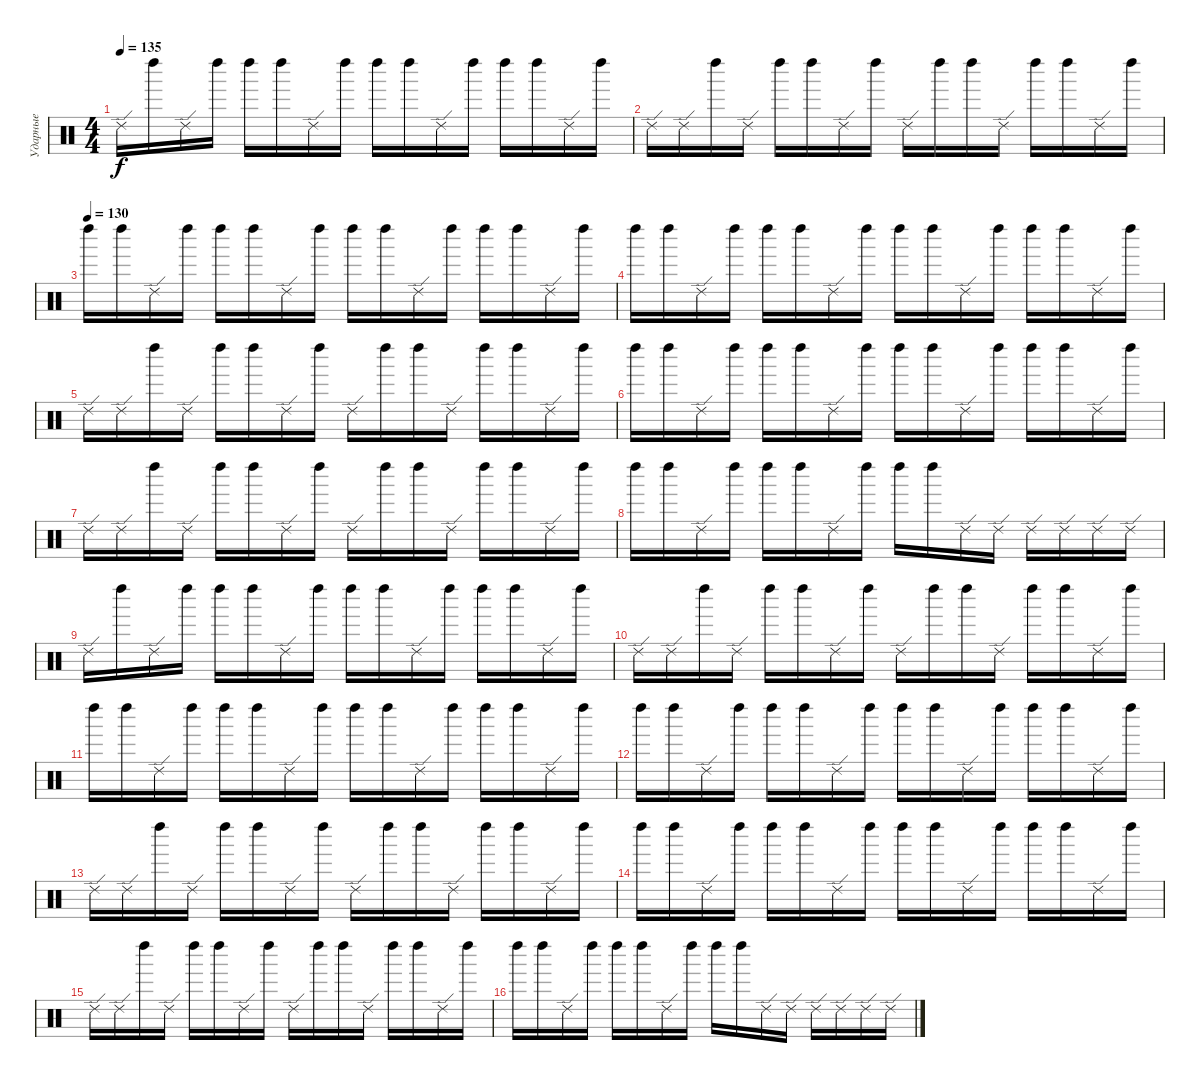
\track ("Ударные" "Ударные") {instrument percussion}
\staff {score}
\articulation defaults
\ts (4 4)
\tempo 135
\clef neutral
\ks c "Ride (edge) 2".16{dy f} "Left Maraca (hit)".16 "Ride (edge) 2".16 "Left Maraca (hit)".16 "Left Maraca (hit)".16 "Left Maraca (hit)".16 "Ride (edge) 2".16 "Left Maraca (hit)".16 "Left Maraca (hit)".16 "Left Maraca (hit)".16 "Ride (edge) 2".16 "Left Maraca (hit)".16 "Left Maraca (hit)".16 "Left Maraca (hit)".16 "Ride (edge) 2".16 "Left Maraca (hit)".16
|
"Ride (edge) 2".16 "Ride (edge) 2".16 "Left Maraca (hit)".16 "Ride (edge) 2".16 "Left Maraca (hit)".16 "Left Maraca (hit)".16 "Ride (edge) 2".16 "Left Maraca (hit)".16 "Ride (edge) 2".16 "Left Maraca (hit)".16 "Left Maraca (hit)".16 "Ride (edge) 2".16 "Left Maraca (hit)".16 "Left Maraca (hit)".16 "Ride (edge) 2".16 "Left Maraca (hit)".16 |
\tempo (130)
"Left Maraca (hit)".16 "Left Maraca (hit)".16 "Ride (edge) 2".16 "Left Maraca (hit)".16 "Left Maraca (hit)".16 "Left Maraca (hit)".16 "Ride (edge) 2".16 "Left Maraca (hit)".16 "Left Maraca (hit)".16 "Left Maraca (hit)".16 "Ride (edge) 2".16 "Left Maraca (hit)".16 "Left Maraca (hit)".16 "Left Maraca (hit)".16 "Ride (edge) 2".16 "Left Maraca (hit)".16 |
"Left Maraca (hit)".16 "Left Maraca (hit)".16 "Ride (edge) 2".16 "Left Maraca (hit)".16 "Left Maraca (hit)".16 "Left Maraca (hit)".16 "Ride (edge) 2".16 "Left Maraca (hit)".16 "Left Maraca (hit)".16 "Left Maraca (hit)".16 "Ride (edge) 2".16 "Left Maraca (hit)".16 "Left Maraca (hit)".16 "Left Maraca (hit)".16 "Ride (edge) 2".16 "Left Maraca (hit)".16 |
"Ride (edge) 2".16 "Ride (edge) 2".16 "Left Maraca (hit)".16 "Ride (edge) 2".16 "Left Maraca (hit)".16 "Left Maraca (hit)".16 "Ride (edge) 2".16 "Left Maraca (hit)".16 "Ride (edge) 2".16 "Left Maraca (hit)".16 "Left Maraca (hit)".16 "Ride (edge) 2".16 "Left Maraca (hit)".16 "Left Maraca (hit)".16 "Ride (edge) 2".16 "Left Maraca (hit)".16 |
"Left Maraca (hit)".16 "Left Maraca (hit)".16 "Ride (edge) 2".16 "Left Maraca (hit)".16 "Left Maraca (hit)".16 "Left Maraca (hit)".16 "Ride (edge) 2".16 "Left Maraca (hit)".16 "Left Maraca (hit)".16 "Left Maraca (hit)".16 "Ride (edge) 2".16 "Left Maraca (hit)".16 "Left Maraca (hit)".16 "Left Maraca (hit)".16 "Ride (edge) 2".16 "Left Maraca (hit)".16 |
"Ride (edge) 2".16 "Ride (edge) 2".16 "Left Maraca (hit)".16 "Ride (edge) 2".16 "Left Maraca (hit)".16 "Left Maraca (hit)".16 "Ride (edge) 2".16 "Left Maraca (hit)".16 "Ride (edge) 2".16 "Left Maraca (hit)".16 "Left Maraca (hit)".16 "Ride (edge) 2".16 "Left Maraca (hit)".16 "Left Maraca (hit)".16 "Ride (edge) 2".16 "Left Maraca (hit)".16 |
"Left Maraca (hit)".16 "Left Maraca (hit)".16 "Ride (edge) 2".16 "Left Maraca (hit)".16 "Left Maraca (hit)".16 "Left Maraca (hit)".16 "Ride (edge) 2".16 "Left Maraca (hit)".16 "Left Maraca (hit)".16 "Left Maraca (hit)".16 "Ride (edge) 2".16 "Ride (edge) 2".16 "Ride (edge) 2".16 "Ride (edge) 2".16 "Ride (edge) 2".16 "Ride (edge) 2".16 |
"Ride (edge) 2".16 "Left Maraca (hit)".16 "Ride (edge) 2".16 "Left Maraca (hit)".16 "Left Maraca (hit)".16 "Left Maraca (hit)".16 "Ride (edge) 2".16 "Left Maraca (hit)".16 "Left Maraca (hit)".16 "Left Maraca (hit)".16 "Ride (edge) 2".16 "Left Maraca (hit)".16 "Left Maraca (hit)".16 "Left Maraca (hit)".16 "Ride (edge) 2".16 "Left Maraca (hit)".16 |
"Ride (edge) 2".16 "Ride (edge) 2".16 "Left Maraca (hit)".16 "Ride (edge) 2".16 "Left Maraca (hit)".16 "Left Maraca (hit)".16 "Ride (edge) 2".16 "Left Maraca (hit)".16 "Ride (edge) 2".16 "Left Maraca (hit)".16 "Left Maraca (hit)".16 "Ride (edge) 2".16 "Left Maraca (hit)".16 "Left Maraca (hit)".16 "Ride (edge) 2".16 "Left Maraca (hit)".16 |
"Left Maraca (hit)".16 "Left Maraca (hit)".16 "Ride (edge) 2".16 "Left Maraca (hit)".16 "Left Maraca (hit)".16 "Left Maraca (hit)".16 "Ride (edge) 2".16 "Left Maraca (hit)".16 "Left Maraca (hit)".16 "Left Maraca (hit)".16 "Ride (edge) 2".16 "Left Maraca (hit)".16 "Left Maraca (hit)".16 "Left Maraca (hit)".16 "Ride (edge) 2".16 "Left Maraca (hit)".16 |
"Left Maraca (hit)".16 "Left Maraca (hit)".16 "Ride (edge) 2".16 "Left Maraca (hit)".16 "Left Maraca (hit)".16 "Left Maraca (hit)".16 "Ride (edge) 2".16 "Left Maraca (hit)".16 "Left Maraca (hit)".16 "Left Maraca (hit)".16 "Ride (edge) 2".16 "Left Maraca (hit)".16 "Left Maraca (hit)".16 "Left Maraca (hit)".16 "Ride (edge) 2".16 "Left Maraca (hit)".16 |
"Ride (edge) 2".16 "Ride (edge) 2".16 "Left Maraca (hit)".16 "Ride (edge) 2".16 "Left Maraca (hit)".16 "Left Maraca (hit)".16 "Ride (edge) 2".16 "Left Maraca (hit)".16 "Ride (edge) 2".16 "Left Maraca (hit)".16 "Left Maraca (hit)".16 "Ride (edge) 2".16 "Left Maraca (hit)".16 "Left Maraca (hit)".16 "Ride (edge) 2".16 "Left Maraca (hit)".16 |
"Left Maraca (hit)".16 "Left Maraca (hit)".16 "Ride (edge) 2".16 "Left Maraca (hit)".16 "Left Maraca (hit)".16 "Left Maraca (hit)".16 "Ride (edge) 2".16 "Left Maraca (hit)".16 "Left Maraca (hit)".16 "Left Maraca (hit)".16 "Ride (edge) 2".16 "Left Maraca (hit)".16 "Left Maraca (hit)".16 "Left Maraca (hit)".16 "Ride (edge) 2".16 "Left Maraca (hit)".16 |
"Ride (edge) 2".16 "Ride (edge) 2".16 "Left Maraca (hit)".16 "Ride (edge) 2".16 "Left Maraca (hit)".16 "Left Maraca (hit)".16 "Ride (edge) 2".16 "Left Maraca (hit)".16 "Ride (edge) 2".16 "Left Maraca (hit)".16 "Left Maraca (hit)".16 "Ride (edge) 2".16 "Left Maraca (hit)".16 "Left Maraca (hit)".16 "Ride (edge) 2".16 "Left Maraca (hit)".16 |
"Left Maraca (hit)".16 "Left Maraca (hit)".16 "Ride (edge) 2".16 "Left Maraca (hit)".16 "Left Maraca (hit)".16 "Left Maraca (hit)".16 "Ride (edge) 2".16 "Left Maraca (hit)".16 "Left Maraca (hit)".16 "Left Maraca (hit)".16 "Ride (edge) 2".16 "Ride (edge) 2".16 "Ride (edge) 2".16 "Ride (edge) 2".16 "Ride (edge) 2".16 "Ride (edge) 2".16
